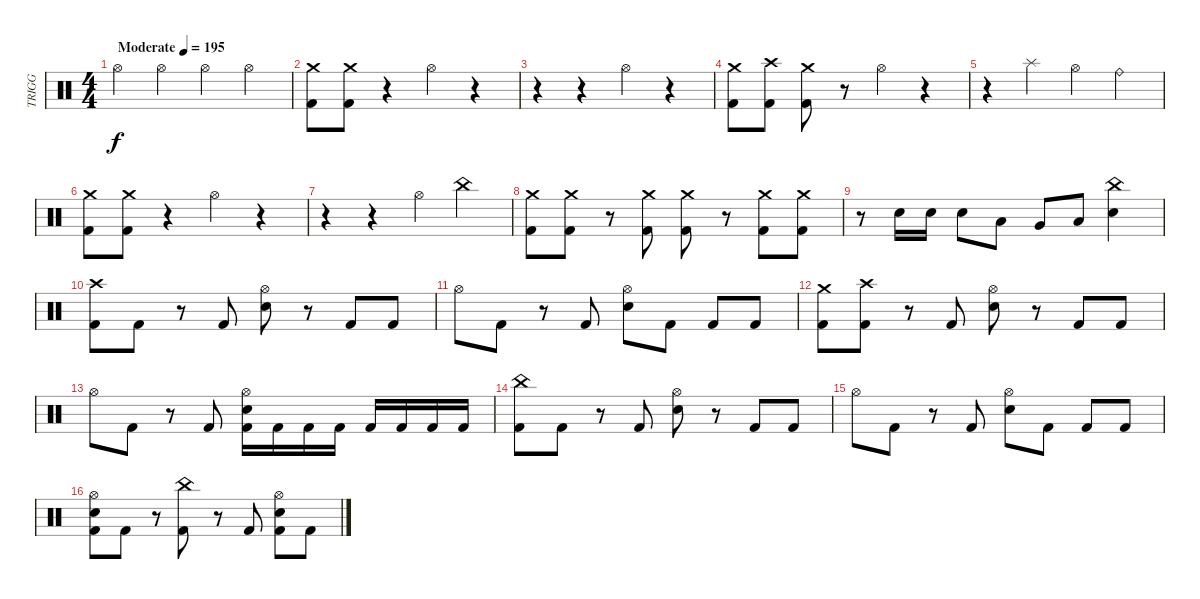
\track ("TRIGG" "TRIGG") {instrument percussion}
\staff {score}
\articulation defaults
\ts (4 4)
\tempo (195 "Moderate")
\clef neutral
\ks c "Hi-Hat (open)".4{dy f} "Hi-Hat (open)".4 "Hi-Hat (open)".4 "Hi-Hat (open)".4
|
("Crash medium (hit)" "Kick (hit) 2").8 ("Crash medium (hit)" "Kick (hit) 2").8 r.4 "Hi-Hat (open)".4 r.4 |
r.4 r.4 "Hi-Hat (open)".4 r.4 |
("Crash medium (hit)" "Kick (hit) 2").8 ("Crash high (hit)" "Kick (hit) 2").8 ("Crash medium (hit)" "Kick (hit) 2").8 r.8 "Hi-Hat (open)".4 r.4 |
r.4 "Splash (hit)".4 "Hi-Hat (open)".4 "Ride (bell)".4 |
("Crash medium (hit)" "Kick (hit) 2").8 ("Crash medium (hit)" "Kick (hit) 2").8 r.4 "Hi-Hat (open)".4 r.4 |
r.4 r.4 "Hi-Hat (open)".4 "China (hit)".4 |
("Crash medium (hit)" "Kick (hit) 2").8 ("Crash medium (hit)" "Kick (hit) 2").8 r.8 ("Crash medium (hit)" "Kick (hit) 2").8 ("Crash medium (hit)" "Kick (hit) 2").8 r.8 ("Crash medium (hit)" "Kick (hit) 2").8 ("Crash medium (hit)" "Kick (hit) 2").8 |
r.8 "Electric Snare (hit)".16 "Electric Snare (hit)".16 "Electric Snare (hit)".8 "Low Tom (hit)".8 "Very Low Tom (hit)".8 "Low Floor Tom (hit)".8 ("Electric Snare (hit)" "China (hit)").4 |
("Crash high (hit)" "Kick (hit) 2").8 "Kick (hit) 2".8 r.8 "Kick (hit) 2".8 ("Hi-Hat (open)" "Electric Snare (hit)").8 r.8 "Kick (hit) 2".8 "Kick (hit) 2".8 |
"Hi-Hat (open)".8 "Kick (hit) 2".8 r.8 "Kick (hit) 2".8 ("Hi-Hat (open)" "Electric Snare (hit)").8 "Kick (hit) 2".8 "Kick (hit) 2".8 "Kick (hit) 2".8 |
("Crash medium (hit)" "Kick (hit) 2").8 ("Crash high (hit)" "Kick (hit) 2").8 r.8 "Kick (hit) 2".8 ("Hi-Hat (open)" "Electric Snare (hit)").8 r.8 "Kick (hit) 2".8 "Kick (hit) 2".8 |
"Hi-Hat (open)".8 "Kick (hit) 2".8 r.8 "Kick (hit) 2".8 ("Hi-Hat (open)" "Electric Snare (hit)" "Kick (hit) 2").16 "Kick (hit) 2".16 "Kick (hit) 2".16 "Kick (hit) 2".16 "Kick (hit) 2".16 "Kick (hit) 2".16 "Kick (hit) 2".16 "Kick (hit) 2".16 |
("China (hit)" "Kick (hit) 2").8 "Kick (hit) 2".8 r.8 "Kick (hit) 2".8 ("Hi-Hat (open)" "Electric Snare (hit)").8 r.8 "Kick (hit) 2".8 "Kick (hit) 2".8 |
"Hi-Hat (open)".8 "Kick (hit) 2".8 r.8 "Kick (hit) 2".8 ("Hi-Hat (open)" "Electric Snare (hit)").8 "Kick (hit) 2".8 "Kick (hit) 2".8 "Kick (hit) 2".8 |
("Hi-Hat (open)" "Electric Snare (hit)" "Kick (hit) 2").8 "Kick (hit) 2".8 r.8 ("China (hit)" "Kick (hit) 2").8 r.8 "Kick (hit) 2".8 ("Hi-Hat (open)" "Electric Snare (hit)" "Kick (hit) 2").8 "Kick (hit) 2".8
